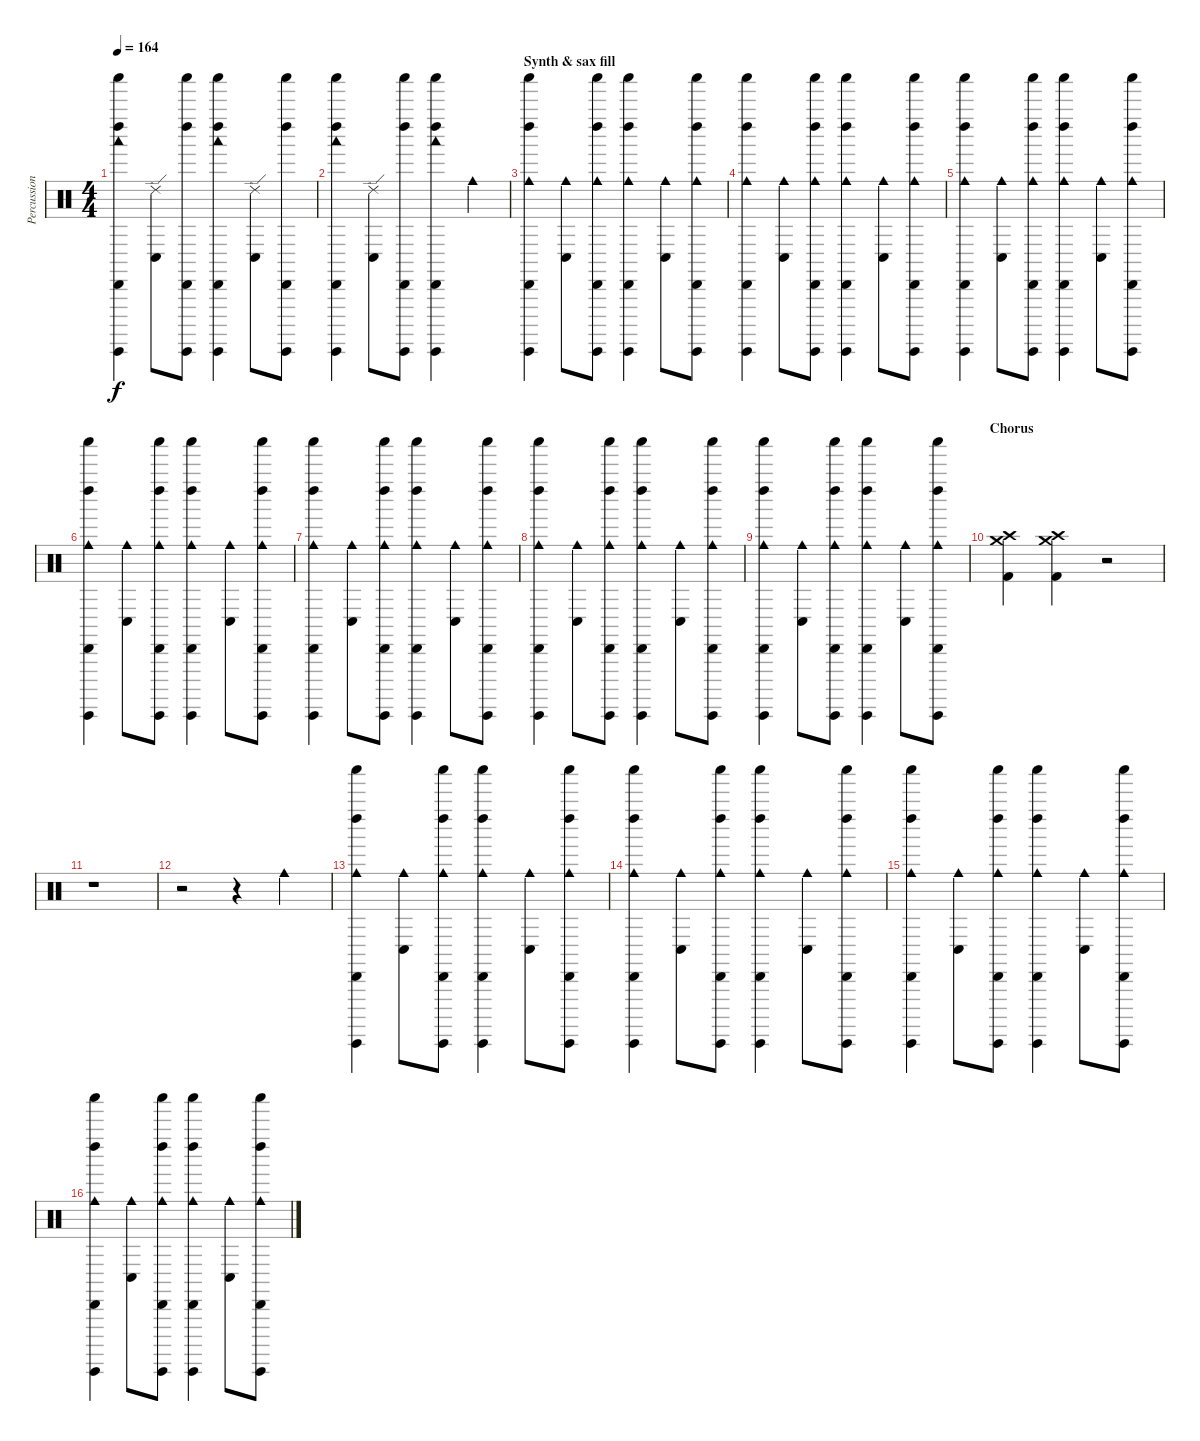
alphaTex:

\track ("Percussion" "Percussion") {instrument percussion}
\staff {score}
\articulation defaults
\ts (4 4)
\tempo 164
\clef neutral
\ks c
("Shaker (hit)" "Guiro (hit)" "Left Maraca (hit)" "Cabasa (hit)" "Woodblock low (hit)").4{dy f} ("Ride (edge) 2" "Conga low (hit)").8 ("Shaker (hit)" "Guiro (hit)" "Left Maraca (hit)" "Cabasa (hit)").8 ("Shaker (hit)" "Guiro (hit)" "Left Maraca (hit)" "Cabasa (hit)" "Woodblock low (hit)").4 ("Ride (edge) 2" "Conga low (hit)").8 ("Shaker (hit)" "Guiro (hit)" "Left Maraca (hit)" "Cabasa (hit)").8 |
("Shaker (hit)" "Guiro (hit)" "Left Maraca (hit)" "Cabasa (hit)" "Woodblock low (hit)").4 ("Ride (edge) 2" "Conga low (hit)").8 ("Shaker (hit)" "Guiro (hit)" "Left Maraca (hit)" "Cabasa (hit)").8 ("Shaker (hit)" "Guiro (hit)" "Left Maraca (hit)" "Cabasa (hit)" "Woodblock low (hit)").4 "Cowbell medium (hit)".4 |
\section ("" "Synth & sax fill")
("Shaker (hit)" "Guiro (hit)" "Left Maraca (hit)" "Cabasa (hit)" "Cowbell medium (hit)").4 ("Conga low (hit)" "Cowbell medium (hit)").8 ("Shaker (hit)" "Guiro (hit)" "Left Maraca (hit)" "Cabasa (hit)" "Cowbell medium (hit)").8 ("Shaker (hit)" "Guiro (hit)" "Left Maraca (hit)" "Cabasa (hit)" "Cowbell medium (hit)").4 ("Conga low (hit)" "Cowbell medium (hit)").8 ("Shaker (hit)" "Guiro (hit)" "Left Maraca (hit)" "Cabasa (hit)" "Cowbell medium (hit)").8 |
("Shaker (hit)" "Guiro (hit)" "Left Maraca (hit)" "Cabasa (hit)" "Cowbell medium (hit)").4 ("Conga low (hit)" "Cowbell medium (hit)").8 ("Shaker (hit)" "Guiro (hit)" "Left Maraca (hit)" "Cabasa (hit)" "Cowbell medium (hit)").8 ("Shaker (hit)" "Guiro (hit)" "Left Maraca (hit)" "Cabasa (hit)" "Cowbell medium (hit)").4 ("Conga low (hit)" "Cowbell medium (hit)").8 ("Shaker (hit)" "Guiro (hit)" "Left Maraca (hit)" "Cabasa (hit)" "Cowbell medium (hit)").8 |
("Shaker (hit)" "Guiro (hit)" "Left Maraca (hit)" "Cabasa (hit)" "Cowbell medium (hit)").4 ("Conga low (hit)" "Cowbell medium (hit)").8 ("Shaker (hit)" "Guiro (hit)" "Left Maraca (hit)" "Cabasa (hit)" "Cowbell medium (hit)").8 ("Shaker (hit)" "Guiro (hit)" "Left Maraca (hit)" "Cabasa (hit)" "Cowbell medium (hit)").4 ("Conga low (hit)" "Cowbell medium (hit)").8 ("Shaker (hit)" "Guiro (hit)" "Left Maraca (hit)" "Cabasa (hit)" "Cowbell medium (hit)").8 |
("Shaker (hit)" "Guiro (hit)" "Left Maraca (hit)" "Cabasa (hit)" "Cowbell medium (hit)").4 ("Conga low (hit)" "Cowbell medium (hit)").8 ("Shaker (hit)" "Guiro (hit)" "Left Maraca (hit)" "Cabasa (hit)" "Cowbell medium (hit)").8 ("Shaker (hit)" "Guiro (hit)" "Left Maraca (hit)" "Cabasa (hit)" "Cowbell medium (hit)").4 ("Conga low (hit)" "Cowbell medium (hit)").8 ("Shaker (hit)" "Guiro (hit)" "Left Maraca (hit)" "Cabasa (hit)" "Cowbell medium (hit)").8 |
("Shaker (hit)" "Guiro (hit)" "Left Maraca (hit)" "Cabasa (hit)" "Cowbell medium (hit)").4 ("Conga low (hit)" "Cowbell medium (hit)").8 ("Shaker (hit)" "Guiro (hit)" "Left Maraca (hit)" "Cabasa (hit)" "Cowbell medium (hit)").8 ("Shaker (hit)" "Guiro (hit)" "Left Maraca (hit)" "Cabasa (hit)" "Cowbell medium (hit)").4 ("Conga low (hit)" "Cowbell medium (hit)").8 ("Shaker (hit)" "Guiro (hit)" "Left Maraca (hit)" "Cabasa (hit)" "Cowbell medium (hit)").8 |
("Shaker (hit)" "Guiro (hit)" "Left Maraca (hit)" "Cabasa (hit)" "Cowbell medium (hit)").4 ("Conga low (hit)" "Cowbell medium (hit)").8 ("Shaker (hit)" "Guiro (hit)" "Left Maraca (hit)" "Cabasa (hit)" "Cowbell medium (hit)").8 ("Shaker (hit)" "Guiro (hit)" "Left Maraca (hit)" "Cabasa (hit)" "Cowbell medium (hit)").4 ("Conga low (hit)" "Cowbell medium (hit)").8 ("Shaker (hit)" "Guiro (hit)" "Left Maraca (hit)" "Cabasa (hit)" "Cowbell medium (hit)").8 |
("Shaker (hit)" "Guiro (hit)" "Left Maraca (hit)" "Cabasa (hit)" "Cowbell medium (hit)").4 ("Conga low (hit)" "Cowbell medium (hit)").8 ("Shaker (hit)" "Guiro (hit)" "Left Maraca (hit)" "Cabasa (hit)" "Cowbell medium (hit)").8 ("Shaker (hit)" "Guiro (hit)" "Left Maraca (hit)" "Cabasa (hit)" "Cowbell medium (hit)").4 ("Conga low (hit)" "Cowbell medium (hit)").8 ("Shaker (hit)" "Guiro (hit)" "Left Maraca (hit)" "Cabasa (hit)" "Cowbell medium (hit)").8 |
\section ("" "Chorus")
("Crash high (hit)" "Crash medium (hit)" "Kick (hit) 2").4 ("Crash high (hit)" "Crash medium (hit)" "Kick (hit) 2").4 r.2 |
r.1 |
r.2 r.4 "Cowbell medium (hit)".4 |
("Shaker (hit)" "Guiro (hit)" "Left Maraca (hit)" "Cabasa (hit)" "Cowbell medium (hit)").4 ("Conga low (hit)" "Cowbell medium (hit)").8 ("Shaker (hit)" "Guiro (hit)" "Left Maraca (hit)" "Cabasa (hit)" "Cowbell medium (hit)").8 ("Shaker (hit)" "Guiro (hit)" "Left Maraca (hit)" "Cabasa (hit)" "Cowbell medium (hit)").4 ("Conga low (hit)" "Cowbell medium (hit)").8 ("Shaker (hit)" "Guiro (hit)" "Left Maraca (hit)" "Cabasa (hit)" "Cowbell medium (hit)").8 |
("Shaker (hit)" "Guiro (hit)" "Left Maraca (hit)" "Cabasa (hit)" "Cowbell medium (hit)").4 ("Conga low (hit)" "Cowbell medium (hit)").8 ("Shaker (hit)" "Guiro (hit)" "Left Maraca (hit)" "Cabasa (hit)" "Cowbell medium (hit)").8 ("Shaker (hit)" "Guiro (hit)" "Left Maraca (hit)" "Cabasa (hit)" "Cowbell medium (hit)").4 ("Conga low (hit)" "Cowbell medium (hit)").8 ("Shaker (hit)" "Guiro (hit)" "Left Maraca (hit)" "Cabasa (hit)" "Cowbell medium (hit)").8 |
("Shaker (hit)" "Guiro (hit)" "Left Maraca (hit)" "Cabasa (hit)" "Cowbell medium (hit)").4 ("Conga low (hit)" "Cowbell medium (hit)").8 ("Shaker (hit)" "Guiro (hit)" "Left Maraca (hit)" "Cabasa (hit)" "Cowbell medium (hit)").8 ("Shaker (hit)" "Guiro (hit)" "Left Maraca (hit)" "Cabasa (hit)" "Cowbell medium (hit)").4 ("Conga low (hit)" "Cowbell medium (hit)").8 ("Shaker (hit)" "Guiro (hit)" "Left Maraca (hit)" "Cabasa (hit)" "Cowbell medium (hit)").8 |
("Shaker (hit)" "Guiro (hit)" "Left Maraca (hit)" "Cabasa (hit)" "Cowbell medium (hit)").4 ("Conga low (hit)" "Cowbell medium (hit)").8 ("Shaker (hit)" "Guiro (hit)" "Left Maraca (hit)" "Cabasa (hit)" "Cowbell medium (hit)").8 ("Shaker (hit)" "Guiro (hit)" "Left Maraca (hit)" "Cabasa (hit)" "Cowbell medium (hit)").4 ("Conga low (hit)" "Cowbell medium (hit)").8 ("Shaker (hit)" "Guiro (hit)" "Left Maraca (hit)" "Cabasa (hit)" "Cowbell medium (hit)").8
